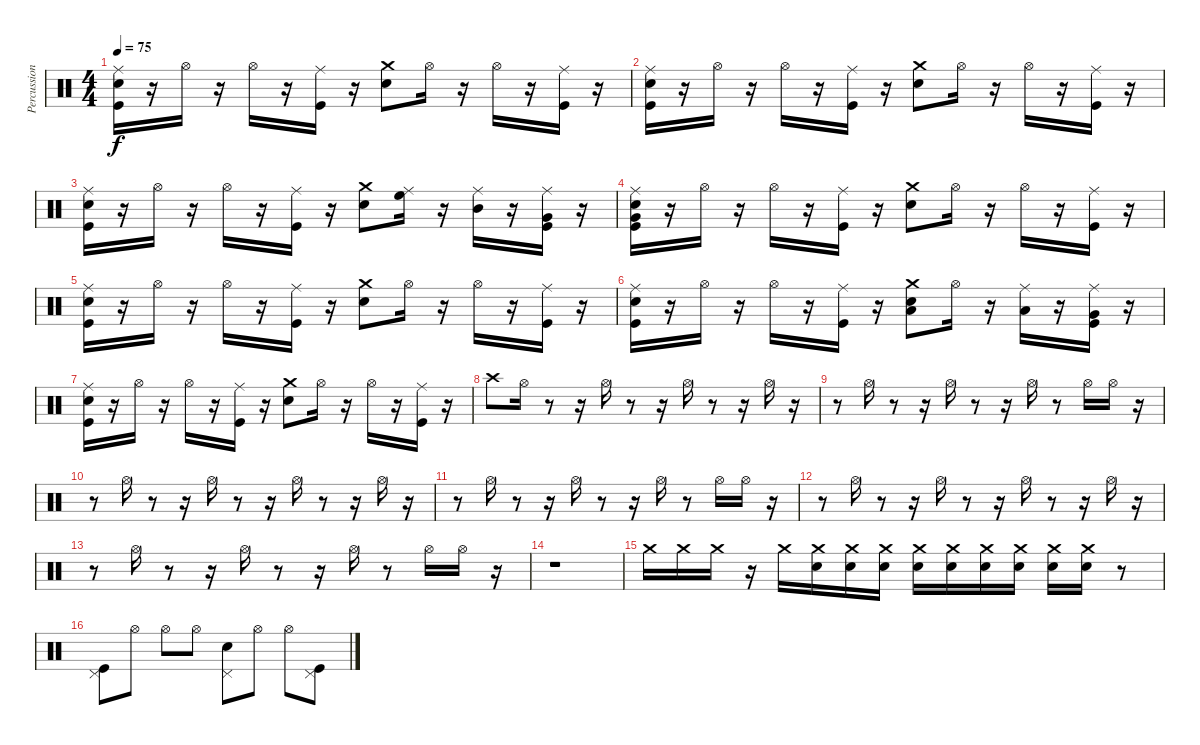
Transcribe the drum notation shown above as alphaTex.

\track ("Percussion" "Percussion") {instrument percussion}
\staff {score}
\articulation defaults
\ts (4 4)
\tempo 75
\clef neutral
\ks c
("Snare (hit) 2" "Ride (middle)" "Kick (hit)").16{dy f} r.16 "Hi-Hat (open)".16 r.16 "Hi-Hat (open)".16 r.16 ("Kick (hit)" "Ride (middle)").16 r.16 ("Snare (hit) 2" "Crash medium (hit)").8 "Hi-Hat (open)".16 r.16 "Hi-Hat (open)".16 r.16 ("Kick (hit)" "Ride (middle)").16 r.16 |
("Snare (hit) 2" "Ride (middle)" "Kick (hit)").16 r.16 "Hi-Hat (open)".16 r.16 "Hi-Hat (open)".16 r.16 ("Kick (hit)" "Ride (middle)").16 r.16 ("Snare (hit) 2" "Crash medium (hit)").8 "Hi-Hat (open)".16 r.16 "Hi-Hat (open)".16 r.16 ("Kick (hit)" "Ride (middle)").16 r.16 |
("Snare (hit) 2" "Ride (middle)" "Kick (hit)").16 r.16 "Hi-Hat (open)".16 r.16 "Hi-Hat (open)".16 r.16 ("Kick (hit)" "Ride (middle)").16 r.16 ("Snare (hit) 2" "Crash medium (hit)").8 ("High Floor Tom (hit)" "Ride (middle)").16 r.16 ("Mid Tom (hit)" "Ride (middle)").16 r.16 ("Very Low Tom (hit)" "Kick (hit)" "Ride (middle)").16 r.16 |
("Very Low Tom (hit)" "Snare (hit) 2" "Ride (middle)" "Kick (hit)").16 r.16 "Hi-Hat (open)".16 r.16 "Hi-Hat (open)".16 r.16 ("Kick (hit)" "Ride (middle)").16 r.16 ("Snare (hit) 2" "Crash medium (hit)").8 "Hi-Hat (open)".16 r.16 "Hi-Hat (open)".16 r.16 ("Kick (hit)" "Ride (middle)").16 r.16 |
("Snare (hit) 2" "Ride (middle)" "Kick (hit)").16 r.16 "Hi-Hat (open)".16 r.16 "Hi-Hat (open)".16 r.16 ("Kick (hit)" "Ride (middle)").16 r.16 ("Snare (hit) 2" "Crash medium (hit)").8 "Hi-Hat (open)".16 r.16 "Hi-Hat (open)".16 r.16 ("Kick (hit)" "Ride (middle)").16 r.16 |
("Snare (hit) 2" "Ride (middle)" "Kick (hit)").16 r.16 "Hi-Hat (open)".16 r.16 "Hi-Hat (open)".16 r.16 ("Kick (hit)" "Ride (middle)").16 r.16 ("Low Tom (hit)" "Snare (hit) 2" "Crash medium (hit)").8 "Hi-Hat (open)".16 r.16 ("Low Tom (hit)" "Ride (middle)").16 r.16 ("Very Low Tom (hit)" "Kick (hit)" "Ride (middle)").16 r.16 |
("Snare (hit) 2" "Ride (middle)" "Kick (hit)").16 r.16 "Hi-Hat (open)".16 r.16 "Hi-Hat (open)".16 r.16 ("Kick (hit)" "Ride (middle)").16 r.16 ("Snare (hit) 2" "Crash medium (hit)").8 "Hi-Hat (open)".16 r.16 "Hi-Hat (open)".16 r.16 ("Kick (hit)" "Ride (middle)").16 r.16 |
"Crash high (hit)".8 "Hi-Hat (open)".16 r.8 r.16 "Hi-Hat (open)".16 r.8 r.16 "Hi-Hat (open)".16 r.8 r.16 "Hi-Hat (open)".16 r.16 |
r.8 "Hi-Hat (open)".16 r.8 r.16 "Hi-Hat (open)".16 r.8 r.16 "Hi-Hat (open)".16 r.8 "Hi-Hat (open)".16 "Hi-Hat (open)".16 r.16 |
r.8 "Hi-Hat (open)".16 r.8 r.16 "Hi-Hat (open)".16 r.8 r.16 "Hi-Hat (open)".16 r.8 r.16 "Hi-Hat (open)".16 r.16 |
r.8 "Hi-Hat (open)".16 r.8 r.16 "Hi-Hat (open)".16 r.8 r.16 "Hi-Hat (open)".16 r.8 "Hi-Hat (open)".16 "Hi-Hat (open)".16 r.16 |
r.8 "Hi-Hat (open)".16 r.8 r.16 "Hi-Hat (open)".16 r.8 r.16 "Hi-Hat (open)".16 r.8 r.16 "Hi-Hat (open)".16 r.16 |
r.8 "Hi-Hat (open)".16 r.8 r.16 "Hi-Hat (open)".16 r.8 r.16 "Hi-Hat (open)".16 r.8 "Hi-Hat (open)".16 "Hi-Hat (open)".16 r.16 |
r.1 |
"Crash medium (hit)".16 "Crash medium (hit)".16 "Crash medium (hit)".16 r.16 "Crash medium (hit)".16 ("Snare (hit)" "Crash medium (hit)").16 ("Snare (hit)" "Crash medium (hit)").16 ("Snare (hit)" "Crash medium (hit)").16 ("Snare (hit)" "Crash medium (hit)").16 ("Snare (hit)" "Crash medium (hit)").16 ("Snare (hit)" "Crash medium (hit)").16 ("Snare (hit)" "Crash medium (hit)").16 ("Snare (hit)" "Crash medium (hit)").16 ("Snare (hit)" "Crash medium (hit)").16 r.8 |
("Pedal Hi-Hat (hit)" "Kick (hit)").8 "Hi-Hat (open)".8 "Hi-Hat (open)".8 "Hi-Hat (open)".8 ("Snare (hit) 2" "Pedal Hi-Hat (hit)").8 "Hi-Hat (open)".8 "Hi-Hat (open)".8 ("Kick (hit)" "Pedal Hi-Hat (hit)").8
